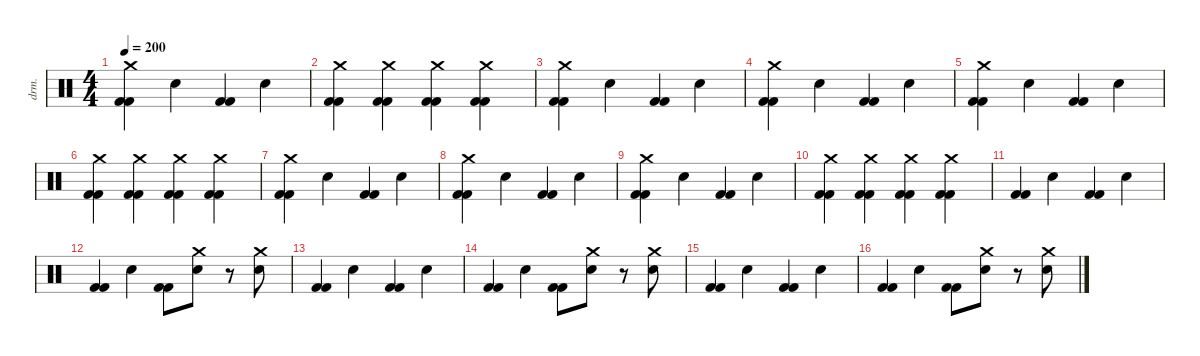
\defaultSystemsLayout 4
\hideDynamics
\bracketExtendMode nobrackets
\track ("Perkusja" "drm.") {instrument percussion}
\staff {score}
\articulation defaults
\ts (4 4)
\tempo 200
\clef neutral
\ks c
("Crash medium (hit)" "Kick (hit) 2" "Kick (hit) 2").4{dy f} "Snare (hit) 2".4 ("Kick (hit) 2" "Kick (hit) 2").4 "Snare (hit) 2".4 |
("Crash medium (hit)" "Kick (hit) 2" "Kick (hit) 2").4 ("Crash medium (hit)" "Kick (hit) 2" "Kick (hit) 2").4 ("Crash medium (hit)" "Kick (hit) 2" "Kick (hit) 2").4 ("Crash medium (hit)" "Kick (hit) 2" "Kick (hit) 2").4 |
("Crash medium (hit)" "Kick (hit) 2" "Kick (hit) 2").4 "Snare (hit) 2".4 ("Kick (hit) 2" "Kick (hit) 2").4 "Snare (hit) 2".4 |
("Crash medium (hit)" "Kick (hit) 2" "Kick (hit) 2").4 "Snare (hit) 2".4 ("Kick (hit) 2" "Kick (hit) 2").4 "Snare (hit) 2".4 |
("Crash medium (hit)" "Kick (hit) 2" "Kick (hit) 2").4 "Snare (hit) 2".4 ("Kick (hit) 2" "Kick (hit) 2").4 "Snare (hit) 2".4 |
("Crash medium (hit)" "Kick (hit) 2" "Kick (hit) 2").4 ("Crash medium (hit)" "Kick (hit) 2" "Kick (hit) 2").4 ("Crash medium (hit)" "Kick (hit) 2" "Kick (hit) 2").4 ("Crash medium (hit)" "Kick (hit) 2" "Kick (hit) 2").4 |
("Crash medium (hit)" "Kick (hit) 2" "Kick (hit) 2").4 "Snare (hit) 2".4 ("Kick (hit) 2" "Kick (hit) 2").4 "Snare (hit) 2".4 |
("Crash medium (hit)" "Kick (hit) 2" "Kick (hit) 2").4 "Snare (hit) 2".4 ("Kick (hit) 2" "Kick (hit) 2").4 "Snare (hit) 2".4 |
("Crash medium (hit)" "Kick (hit) 2" "Kick (hit) 2").4 "Snare (hit) 2".4 ("Kick (hit) 2" "Kick (hit) 2").4 "Snare (hit) 2".4 |
("Crash medium (hit)" "Kick (hit) 2" "Kick (hit) 2").4 ("Crash medium (hit)" "Kick (hit) 2" "Kick (hit) 2").4 ("Crash medium (hit)" "Kick (hit) 2" "Kick (hit) 2").4 ("Crash medium (hit)" "Kick (hit) 2" "Kick (hit) 2").4 |
("Kick (hit) 2" "Kick (hit) 2").4 "Snare (hit) 2".4 ("Kick (hit) 2" "Kick (hit) 2").4 "Snare (hit) 2".4 |
("Kick (hit) 2" "Kick (hit) 2").4 "Snare (hit) 2".4 ("Kick (hit) 2" "Kick (hit) 2").8 ("Crash medium (hit)" "Snare (hit) 2").8 r.8 ("Crash medium (hit)" "Snare (hit) 2").8 |
("Kick (hit) 2" "Kick (hit) 2").4 "Snare (hit) 2".4 ("Kick (hit) 2" "Kick (hit) 2").4 "Snare (hit) 2".4 |
("Kick (hit) 2" "Kick (hit) 2").4 "Snare (hit) 2".4 ("Kick (hit) 2" "Kick (hit) 2").8 ("Crash medium (hit)" "Snare (hit) 2").8 r.8 ("Crash medium (hit)" "Snare (hit) 2").8 |
("Kick (hit) 2" "Kick (hit) 2").4 "Snare (hit) 2".4 ("Kick (hit) 2" "Kick (hit) 2").4 "Snare (hit) 2".4 |
("Kick (hit) 2" "Kick (hit) 2").4 "Snare (hit) 2".4 ("Kick (hit) 2" "Kick (hit) 2").8 ("Crash medium (hit)" "Snare (hit) 2").8 r.8 ("Crash medium (hit)" "Snare (hit) 2").8
